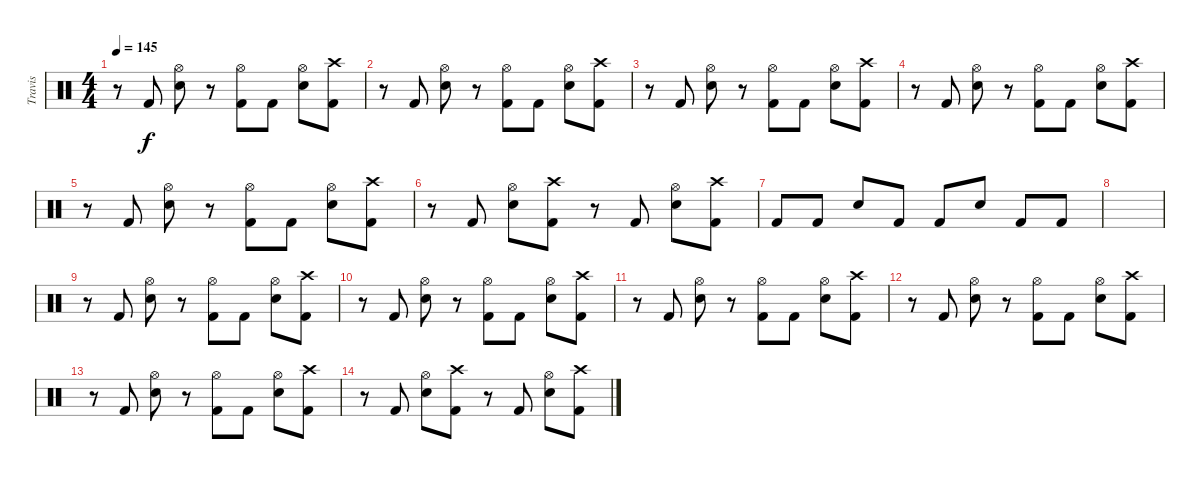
\track ("Travis" "Travis") {instrument percussion}
\staff {score}
\articulation defaults
\ts (4 4)
\tempo 145
\clef neutral
\ks c
r.8{dy f} "Kick (hit) 2".8 ("Hi-Hat (open)" "Electric Snare (hit)").8 r.8 ("Hi-Hat (open)" "Kick (hit) 2").8 "Kick (hit) 2".8 ("Hi-Hat (open)" "Electric Snare (hit)").8 ("Crash high (hit)" "Kick (hit) 2").8 |
r.8 "Kick (hit) 2".8 ("Hi-Hat (open)" "Electric Snare (hit)").8 r.8 ("Hi-Hat (open)" "Kick (hit) 2").8 "Kick (hit) 2".8 ("Hi-Hat (open)" "Electric Snare (hit)").8 ("Crash high (hit)" "Kick (hit) 2").8 |
r.8 "Kick (hit) 2".8 ("Hi-Hat (open)" "Electric Snare (hit)").8 r.8 ("Hi-Hat (open)" "Kick (hit) 2").8 "Kick (hit) 2".8 ("Hi-Hat (open)" "Electric Snare (hit)").8 ("Crash high (hit)" "Kick (hit) 2").8 |
r.8 "Kick (hit) 2".8 ("Hi-Hat (open)" "Electric Snare (hit)").8 r.8 ("Hi-Hat (open)" "Kick (hit) 2").8 "Kick (hit) 2".8 ("Hi-Hat (open)" "Electric Snare (hit)").8 ("Crash high (hit)" "Kick (hit) 2").8 |
r.8 "Kick (hit) 2".8 ("Hi-Hat (open)" "Electric Snare (hit)").8 r.8 ("Hi-Hat (open)" "Kick (hit) 2").8 "Kick (hit) 2".8 ("Hi-Hat (open)" "Electric Snare (hit)").8 ("Crash high (hit)" "Kick (hit) 2").8 |
r.8 "Kick (hit) 2".8 ("Hi-Hat (open)" "Electric Snare (hit)").8 ("Crash high (hit)" "Kick (hit) 2").8 r.8 "Kick (hit) 2".8 ("Hi-Hat (open)" "Electric Snare (hit)").8 ("Crash high (hit)" "Kick (hit) 2").8 |
"Kick (hit) 2".8 "Kick (hit) 2".8 "Electric Snare (hit)".8 "Kick (hit) 2".8 "Kick (hit) 2".8 "Electric Snare (hit)".8 "Kick (hit) 2".8 "Kick (hit) 2".8 |
|
r.8 "Kick (hit) 2".8 ("Hi-Hat (open)" "Electric Snare (hit)").8 r.8 ("Hi-Hat (open)" "Kick (hit) 2").8 "Kick (hit) 2".8 ("Hi-Hat (open)" "Electric Snare (hit)").8 ("Crash high (hit)" "Kick (hit) 2").8 |
r.8 "Kick (hit) 2".8 ("Hi-Hat (open)" "Electric Snare (hit)").8 r.8 ("Hi-Hat (open)" "Kick (hit) 2").8 "Kick (hit) 2".8 ("Hi-Hat (open)" "Electric Snare (hit)").8 ("Crash high (hit)" "Kick (hit) 2").8 |
r.8 "Kick (hit) 2".8 ("Hi-Hat (open)" "Electric Snare (hit)").8 r.8 ("Hi-Hat (open)" "Kick (hit) 2").8 "Kick (hit) 2".8 ("Hi-Hat (open)" "Electric Snare (hit)").8 ("Crash high (hit)" "Kick (hit) 2").8 |
r.8 "Kick (hit) 2".8 ("Hi-Hat (open)" "Electric Snare (hit)").8 r.8 ("Hi-Hat (open)" "Kick (hit) 2").8 "Kick (hit) 2".8 ("Hi-Hat (open)" "Electric Snare (hit)").8 ("Crash high (hit)" "Kick (hit) 2").8 |
r.8 "Kick (hit) 2".8 ("Hi-Hat (open)" "Electric Snare (hit)").8 r.8 ("Hi-Hat (open)" "Kick (hit) 2").8 "Kick (hit) 2".8 ("Hi-Hat (open)" "Electric Snare (hit)").8 ("Crash high (hit)" "Kick (hit) 2").8 |
r.8 "Kick (hit) 2".8 ("Hi-Hat (open)" "Electric Snare (hit)").8 ("Crash high (hit)" "Kick (hit) 2").8 r.8 "Kick (hit) 2".8 ("Hi-Hat (open)" "Electric Snare (hit)").8 ("Crash high (hit)" "Kick (hit) 2").8
